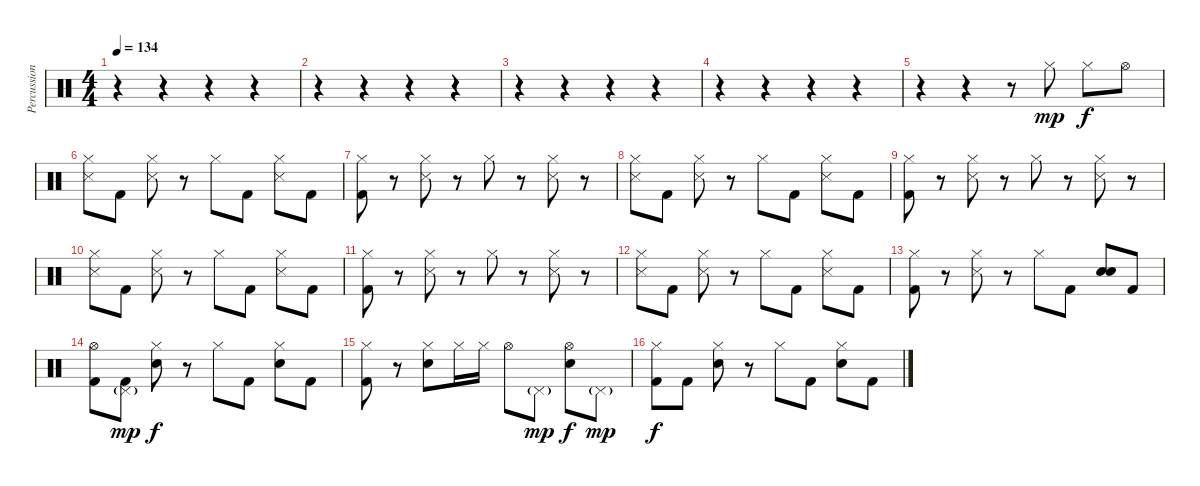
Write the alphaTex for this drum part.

\track ("Percussion" "Percussion") {instrument percussion}
\staff {score}
\articulation defaults
\ts (4 4)
\tempo 134
\clef neutral
\ks c
r.4{dy mp} r.4 r.4 r.4 |
r.4 r.4 r.4 r.4 |
r.4 r.4 r.4 r.4 |
r.4 r.4 r.4 r.4 |
r.4 r.4 r.8 "Hi-Hat (closed)".8 "Hi-Hat (closed)".8{dy f} "Hi-Hat (open)".8 |
("Hi-Hat (closed)" "Snare (side stick) 3").8 "Kick (hit) 2".8 ("Hi-Hat (closed)" "Snare (side stick) 3").8 r.8 "Hi-Hat (closed)".8 "Kick (hit) 2".8 ("Hi-Hat (closed)" "Snare (side stick) 3").8 "Kick (hit) 2".8 |
("Hi-Hat (closed)" "Kick (hit) 2").8 r.8 ("Hi-Hat (closed)" "Snare (side stick) 3").8 r.8 "Hi-Hat (closed)".8 r.8 ("Hi-Hat (closed)" "Snare (side stick) 3").8 r.8 |
("Hi-Hat (closed)" "Snare (side stick) 3").8 "Kick (hit) 2".8 ("Hi-Hat (closed)" "Snare (side stick) 3").8 r.8 "Hi-Hat (closed)".8 "Kick (hit) 2".8 ("Hi-Hat (closed)" "Snare (side stick) 3").8 "Kick (hit) 2".8 |
("Hi-Hat (closed)" "Kick (hit) 2").8 r.8 ("Hi-Hat (closed)" "Snare (side stick) 3").8 r.8 "Hi-Hat (closed)".8 r.8 ("Hi-Hat (closed)" "Snare (side stick) 3").8 r.8 |
("Hi-Hat (closed)" "Snare (side stick) 3").8 "Kick (hit) 2".8 ("Hi-Hat (closed)" "Snare (side stick) 3").8 r.8 "Hi-Hat (closed)".8 "Kick (hit) 2".8 ("Hi-Hat (closed)" "Snare (side stick) 3").8 "Kick (hit) 2".8 |
("Hi-Hat (closed)" "Kick (hit) 2").8 r.8 ("Hi-Hat (closed)" "Snare (side stick) 3").8 r.8 "Hi-Hat (closed)".8 r.8 ("Hi-Hat (closed)" "Snare (side stick) 3").8 r.8 |
("Hi-Hat (closed)" "Snare (side stick) 3").8 "Kick (hit) 2".8 ("Hi-Hat (closed)" "Snare (side stick) 3").8 r.8 "Hi-Hat (closed)".8 "Kick (hit) 2".8 ("Hi-Hat (closed)" "Snare (side stick) 3").8 "Kick (hit) 2".8 |
("Hi-Hat (closed)" "Kick (hit) 2").8 r.8 ("Hi-Hat (closed)" "Snare (side stick) 3").8 r.8 "Hi-Hat (closed)".8 "Kick (hit) 2".8 ("Snare (hit) 2" "Snare (hit) 2").8{bd 240} "Kick (hit) 2".8 |
("Hi-Hat (open)" "Kick (hit) 2").8 ("Pedal Hi-Hat (hit)"{g} "Kick (hit) 2").8{dy mp} ("Hi-Hat (closed)" "Snare (hit) 2").8{dy f} r.8 "Hi-Hat (closed)".8 "Kick (hit) 2".8 ("Hi-Hat (closed)" "Snare (hit) 2").8 "Kick (hit) 2".8 |
("Hi-Hat (closed)" "Kick (hit) 2").8 r.8 ("Hi-Hat (closed)" "Snare (hit) 2").8 "Hi-Hat (closed)".16 "Hi-Hat (closed)".16 "Hi-Hat (open)".8 "Pedal Hi-Hat (hit)"{g}.8{dy mp} ("Hi-Hat (open)" "Snare (hit) 2").8{dy f} "Pedal Hi-Hat (hit)"{g}.8{dy mp} |
("Hi-Hat (closed)" "Kick (hit) 2").8{dy f} "Kick (hit) 2".8 ("Hi-Hat (closed)" "Snare (hit) 2").8 r.8 "Hi-Hat (closed)".8 "Kick (hit) 2".8 ("Hi-Hat (closed)" "Snare (hit) 2").8 "Kick (hit) 2".8
